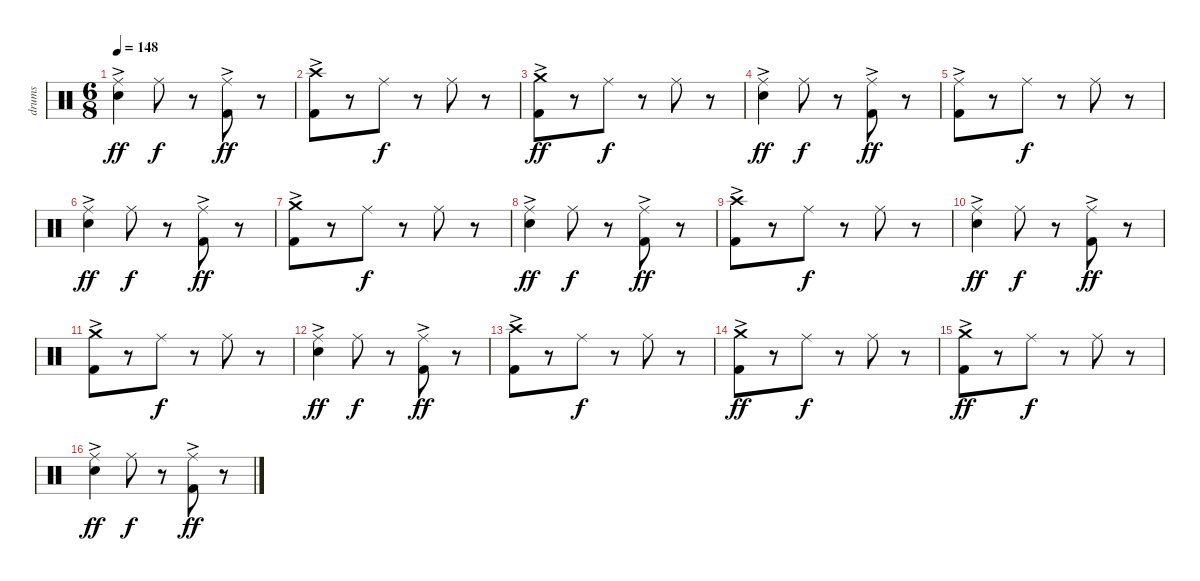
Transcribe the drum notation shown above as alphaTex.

\track ("drums" "drums") {instrument percussion}
\staff {score}
\articulation defaults
\ts (6 8)
\tempo 148
\clef neutral
\ks c
("Ride (middle)" "Electric Snare (hit)"{ac}).4{dy ff} "Ride (middle)".8{dy f} r.8 ("Ride (middle)" "Kick (hit) 2"{ac}).8{dy ff} r.8 |
("Crash high (hit)" "Kick (hit) 2"{ac}).8 r.8 "Ride (middle)".8{dy f} r.8 "Ride (middle)".8 r.8 |
("Crash medium (hit)" "Kick (hit) 2"{ac}).8{dy ff} r.8 "Ride (middle)".8{dy f} r.8 "Ride (middle)".8 r.8 |
("Ride (middle)" "Electric Snare (hit)"{ac}).4{dy ff} "Ride (middle)".8{dy f} r.8 ("Ride (middle)" "Kick (hit) 2"{ac}).8{dy ff} r.8 |
("Ride (middle)" "Kick (hit) 2"{ac}).8 r.8 "Ride (middle)".8{dy f} r.8 "Ride (middle)".8 r.8 |
("Ride (middle)" "Electric Snare (hit)"{ac}).4{dy ff} "Ride (middle)".8{dy f} r.8 ("Ride (middle)" "Kick (hit) 2"{ac}).8{dy ff} r.8 |
("Crash medium (hit)" "Kick (hit) 2"{ac}).8 r.8 "Ride (middle)".8{dy f} r.8 "Ride (middle)".8 r.8 |
("Ride (middle)" "Electric Snare (hit)"{ac}).4{dy ff} "Ride (middle)".8{dy f} r.8 ("Ride (middle)" "Kick (hit) 2"{ac}).8{dy ff} r.8 |
("Crash high (hit)" "Kick (hit) 2"{ac}).8 r.8 "Ride (middle)".8{dy f} r.8 "Ride (middle)".8 r.8 |
("Ride (middle)" "Electric Snare (hit)"{ac}).4{dy ff} "Ride (middle)".8{dy f} r.8 ("Ride (middle)" "Kick (hit) 2"{ac}).8{dy ff} r.8 |
("Crash medium (hit)" "Kick (hit) 2"{ac}).8 r.8 "Ride (middle)".8{dy f} r.8 "Ride (middle)".8 r.8 |
("Ride (middle)" "Electric Snare (hit)"{ac}).4{dy ff} "Ride (middle)".8{dy f} r.8 ("Ride (middle)" "Kick (hit) 2"{ac}).8{dy ff} r.8 |
("Crash high (hit)" "Kick (hit) 2"{ac}).8 r.8 "Ride (middle)".8{dy f} r.8 "Ride (middle)".8 r.8 |
("Crash medium (hit)" "Kick (hit) 2"{ac}).8{dy ff} r.8 "Ride (middle)".8{dy f} r.8 "Ride (middle)".8 r.8 |
("Crash medium (hit)" "Kick (hit) 2"{ac}).8{dy ff} r.8 "Ride (middle)".8{dy f} r.8 "Ride (middle)".8 r.8 |
("Ride (middle)" "Electric Snare (hit)"{ac}).4{dy ff} "Ride (middle)".8{dy f} r.8 ("Ride (middle)" "Kick (hit) 2"{ac}).8{dy ff} r.8
